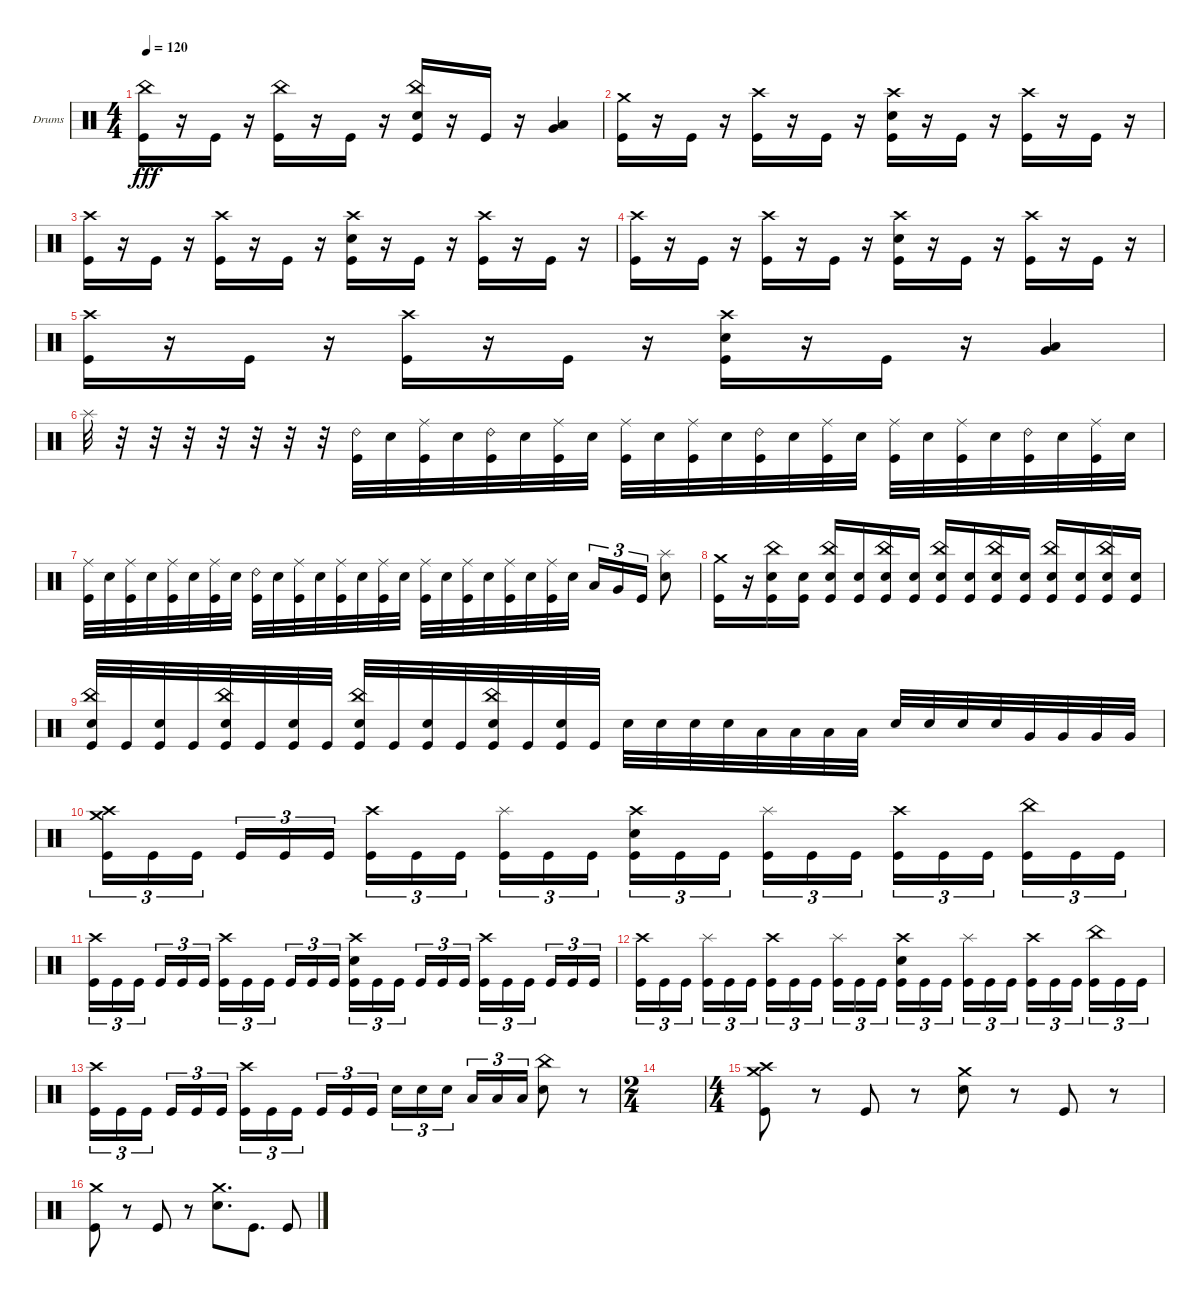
\bracketExtendMode groupsimilarinstruments
\firstSystemTrackNameOrientation horizontal
\otherSystemsTrackNameOrientation horizontal
\track ("Drumkit" "Drums") {instrument percussion}
\staff {score}
\articulation defaults
\ts (4 4)
\tempo 120
\clef neutral
\ks c
("Kick (hit)" "China (hit)").16{dy fff} r.16 "Kick (hit)".16 r.16 ("Kick (hit)" "China (hit)").16 r.16 "Kick (hit)".16 r.16 ("Kick (hit)" "China (hit)" "Snare (hit) 2").16 r.16 "Kick (hit)".16 r.16 ("Very Low Tom (hit)" "Low Tom (hit)").4 |
("Kick (hit)" "Crash medium (hit)").16 r.16 "Kick (hit)".16 r.16 ("Kick (hit)" "Crash high (hit)").16 r.16 "Kick (hit)".16 r.16 ("Kick (hit)" "Snare (hit) 2" "Crash high (hit)").16 r.16 "Kick (hit)".16 r.16 ("Kick (hit)" "Crash high (hit)").16 r.16 "Kick (hit)".16 r.16 |
("Kick (hit)" "Crash high (hit)").16 r.16 "Kick (hit)".16 r.16 ("Kick (hit)" "Crash high (hit)").16 r.16 "Kick (hit)".16 r.16 ("Kick (hit)" "Snare (hit) 2" "Crash high (hit)").16 r.16 "Kick (hit)".16 r.16 ("Kick (hit)" "Crash high (hit)").16 r.16 "Kick (hit)".16 r.16 |
("Kick (hit)" "Crash high (hit)").16 r.16 "Kick (hit)".16 r.16 ("Kick (hit)" "Crash high (hit)").16 r.16 "Kick (hit)".16 r.16 ("Kick (hit)" "Snare (hit) 2" "Crash high (hit)").16 r.16 "Kick (hit)".16 r.16 ("Kick (hit)" "Crash high (hit)").16 r.16 "Kick (hit)".16 r.16 |
("Kick (hit)" "Crash high (hit)").16 r.16 "Kick (hit)".16 r.16 ("Kick (hit)" "Crash high (hit)").16 r.16 "Kick (hit)".16 r.16 ("Kick (hit)" "Snare (hit) 2" "Crash high (hit)").16 r.16 "Kick (hit)".16 r.16 ("Very Low Tom (hit)" "Low Tom (hit)").4 |
"Splash (hit)".32 r.32 r.32 r.32 r.32 r.32 r.32 r.32 ("Kick (hit)" "Ride (bell) 2").32 "Snare (hit) 2".32 ("Kick (hit)" "Ride (middle)").32 "Snare (hit) 2".32 ("Kick (hit)" "Ride (bell) 2").32 "Snare (hit) 2".32 ("Kick (hit)" "Ride (middle)").32 "Snare (hit) 2".32 ("Kick (hit)" "Ride (middle)").32 "Snare (hit) 2".32 ("Kick (hit)" "Ride (middle)").32 "Snare (hit) 2".32 ("Kick (hit)" "Ride (bell) 2").32 "Snare (hit) 2".32 ("Kick (hit)" "Ride (middle)").32 "Snare (hit) 2".32 ("Kick (hit)" "Ride (middle)").32 "Snare (hit) 2".32 ("Kick (hit)" "Ride (middle)").32 "Snare (hit) 2".32 ("Kick (hit)" "Ride (bell) 2").32 "Snare (hit) 2".32 ("Kick (hit)" "Ride (middle)").32 "Snare (hit) 2".32 |
("Kick (hit)" "Ride (middle)").32 "Snare (hit) 2".32 ("Kick (hit)" "Ride (middle)").32 "Snare (hit) 2".32 ("Kick (hit)" "Ride (middle)").32 "Snare (hit) 2".32 ("Kick (hit)" "Ride (middle)").32 "Snare (hit) 2".32 ("Kick (hit)" "Ride (bell) 2").32 "Snare (hit) 2".32 ("Kick (hit)" "Ride (middle)").32 "Snare (hit) 2".32 ("Kick (hit)" "Ride (middle)").32 "Snare (hit) 2".32 ("Kick (hit)" "Ride (middle)").32 "Snare (hit) 2".32 ("Kick (hit)" "Ride (middle)").32 "Snare (hit) 2".32 ("Kick (hit)" "Ride (middle)").32 "Snare (hit) 2".32 ("Kick (hit)" "Ride (middle)").32 "Snare (hit) 2".32 ("Kick (hit)" "Ride (middle)").32 "Snare (hit) 2".32 "Low Tom (hit)".16{tu (3 2)} "Very Low Tom (hit)".16{tu (3 2)} "Kick (hit)".16{tu (3 2)} ("Snare (hit) 2" "Splash (hit)").8 |
("Kick (hit)" "Crash medium (hit)").16 r.16 ("Kick (hit)" "Snare (hit) 2" "China (hit)").16 ("Kick (hit)" "Snare (hit) 2").16 ("Kick (hit)" "Snare (hit) 2" "China (hit)").16 ("Kick (hit)" "Snare (hit) 2").16 ("Kick (hit)" "Snare (hit) 2" "China (hit)").16 ("Kick (hit)" "Snare (hit) 2").16 ("Kick (hit)" "Snare (hit) 2" "China (hit)").16 ("Kick (hit)" "Snare (hit) 2").16 ("Kick (hit)" "Snare (hit) 2" "China (hit)").16 ("Kick (hit)" "Snare (hit) 2").16 ("Kick (hit)" "Snare (hit) 2" "China (hit)").16 ("Kick (hit)" "Snare (hit) 2").16 ("Kick (hit)" "Snare (hit) 2" "China (hit)").16 ("Kick (hit)" "Snare (hit) 2").16 |
("Kick (hit)" "Snare (hit) 2" "China (hit)").32 "Kick (hit)".32 ("Kick (hit)" "Snare (hit) 2").32 "Kick (hit)".32 ("Kick (hit)" "Snare (hit) 2" "China (hit)").32 "Kick (hit)".32 ("Kick (hit)" "Snare (hit) 2").32 "Kick (hit)".32 ("Kick (hit)" "Snare (hit) 2" "China (hit)").32 "Kick (hit)".32 ("Kick (hit)" "Snare (hit) 2").32 "Kick (hit)".32 ("Kick (hit)" "Snare (hit) 2" "China (hit)").32 "Kick (hit)".32 ("Kick (hit)" "Snare (hit) 2").32 "Kick (hit)".32 "Snare (hit) 2".32 "Snare (hit) 2".32 "Snare (hit) 2".32 "Snare (hit) 2".32 "Low Tom (hit)".32 "Low Tom (hit)".32 "Low Tom (hit)".32 "Low Tom (hit)".32 "Snare (hit) 2".32 "Snare (hit) 2".32 "Snare (hit) 2".32 "Snare (hit) 2".32 "Very Low Tom (hit)".32 "Very Low Tom (hit)".32 "Very Low Tom (hit)".32 "Very Low Tom (hit)".32 |
("Kick (hit)" "Crash high (hit)" "Crash medium (hit)").16{tu (3 2)} "Kick (hit)".16{tu (3 2)} "Kick (hit)".16{tu (3 2)} "Kick (hit)".16{tu (3 2)} "Kick (hit)".16{tu (3 2)} "Kick (hit)".16{tu (3 2)} ("Kick (hit)" "Crash high (hit)").16{tu (3 2)} "Kick (hit)".16{tu (3 2)} "Kick (hit)".16{tu (3 2)} ("Kick (hit)" "Splash (hit)").16{tu (3 2)} "Kick (hit)".16{tu (3 2)} "Kick (hit)".16{tu (3 2)} ("Kick (hit)" "Crash high (hit)" "Snare (hit) 2").16{tu (3 2)} "Kick (hit)".16{tu (3 2)} "Kick (hit)".16{tu (3 2)} ("Kick (hit)" "Splash (hit)").16{tu (3 2)} "Kick (hit)".16{tu (3 2)} "Kick (hit)".16{tu (3 2)} ("Kick (hit)" "Crash high (hit)").16{tu (3 2)} "Kick (hit)".16{tu (3 2)} "Kick (hit)".16{tu (3 2)} ("Kick (hit)" "China (hit)").16{tu (3 2)} "Kick (hit)".16{tu (3 2)} "Kick (hit)".16{tu (3 2)} |
("Kick (hit)" "Crash high (hit)").16{tu (3 2)} "Kick (hit)".16{tu (3 2)} "Kick (hit)".16{tu (3 2)} "Kick (hit)".16{tu (3 2)} "Kick (hit)".16{tu (3 2)} "Kick (hit)".16{tu (3 2)} ("Kick (hit)" "Crash high (hit)").16{tu (3 2)} "Kick (hit)".16{tu (3 2)} "Kick (hit)".16{tu (3 2)} "Kick (hit)".16{tu (3 2)} "Kick (hit)".16{tu (3 2)} "Kick (hit)".16{tu (3 2)} ("Kick (hit)" "Crash high (hit)" "Snare (hit) 2").16{tu (3 2)} "Kick (hit)".16{tu (3 2)} "Kick (hit)".16{tu (3 2)} "Kick (hit)".16{tu (3 2)} "Kick (hit)".16{tu (3 2)} "Kick (hit)".16{tu (3 2)} ("Kick (hit)" "Crash high (hit)").16{tu (3 2)} "Kick (hit)".16{tu (3 2)} "Kick (hit)".16{tu (3 2)} "Kick (hit)".16{tu (3 2)} "Kick (hit)".16{tu (3 2)} "Kick (hit)".16{tu (3 2)} |
("Kick (hit)" "Crash high (hit)").16{tu (3 2)} "Kick (hit)".16{tu (3 2)} "Kick (hit)".16{tu (3 2)} ("Kick (hit)" "Splash (hit)").16{tu (3 2)} "Kick (hit)".16{tu (3 2)} "Kick (hit)".16{tu (3 2)} ("Kick (hit)" "Crash high (hit)").16{tu (3 2)} "Kick (hit)".16{tu (3 2)} "Kick (hit)".16{tu (3 2)} ("Kick (hit)" "Splash (hit)").16{tu (3 2)} "Kick (hit)".16{tu (3 2)} "Kick (hit)".16{tu (3 2)} ("Kick (hit)" "Snare (hit) 2" "Crash high (hit)").16{tu (3 2)} "Kick (hit)".16{tu (3 2)} "Kick (hit)".16{tu (3 2)} ("Kick (hit)" "Splash (hit)").16{tu (3 2)} "Kick (hit)".16{tu (3 2)} "Kick (hit)".16{tu (3 2)} ("Kick (hit)" "Crash high (hit)").16{tu (3 2)} "Kick (hit)".16{tu (3 2)} "Kick (hit)".16{tu (3 2)} ("Kick (hit)" "China (hit)").16{tu (3 2)} "Kick (hit)".16{tu (3 2)} "Kick (hit)".16{tu (3 2)} |
("Kick (hit)" "Crash high (hit)").16{tu (3 2)} "Kick (hit)".16{tu (3 2)} "Kick (hit)".16{tu (3 2)} "Kick (hit)".16{tu (3 2)} "Kick (hit)".16{tu (3 2)} "Kick (hit)".16{tu (3 2)} ("Kick (hit)" "Crash high (hit)").16{tu (3 2)} "Kick (hit)".16{tu (3 2)} "Kick (hit)".16{tu (3 2)} "Kick (hit)".16{tu (3 2)} "Kick (hit)".16{tu (3 2)} "Kick (hit)".16{tu (3 2)} "Snare (hit) 2".16{tu (3 2)} "Snare (hit) 2".16{tu (3 2)} "Snare (hit) 2".16{tu (3 2)} "Low Tom (hit)".16{tu (3 2)} "Low Tom (hit)".16{tu (3 2)} "Low Tom (hit)".16{tu (3 2)} ("Snare (hit) 2" "China (hit)").8 r.8 |
\ts (2 4)
|
\ts (4 4)
("Kick (hit)" "Crash high (hit)" "Crash medium (hit)").8 r.8 "Kick (hit)".8 r.8 ("Snare (hit) 2" "Crash medium (hit)").8 r.8 "Kick (hit)".8 r.8 |
("Kick (hit)" "Crash medium (hit)").8 r.8 "Kick (hit)".8 r.8 ("Snare (hit) 2" "Crash medium (hit)").8{d} "Kick (hit)".8{d} "Kick (hit)".8
